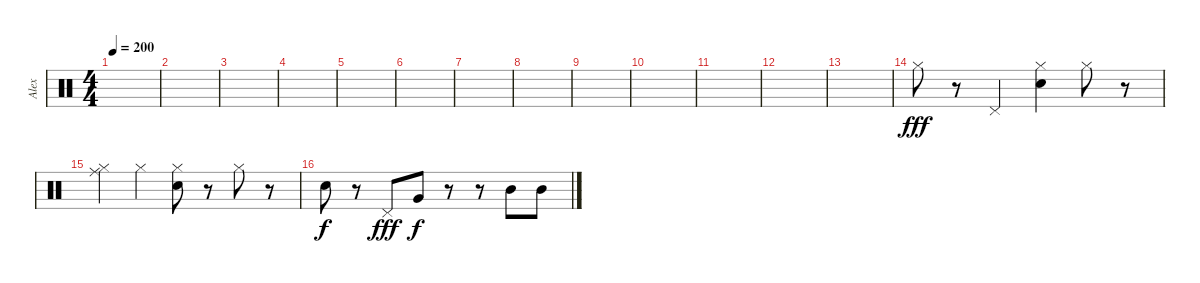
\track ("Alex" "Alex") {instrument percussion}
\staff {score}
\articulation defaults
\ts (4 4)
\tempo 200
\clef neutral
\ks c
|
|
|
|
|
|
|
|
|
|
|
|
|
"Hi-Hat (closed)".8{dy fff} r.8 "Pedal Hi-Hat (hit)".4 ("Electric Snare (hit)" "Hi-Hat (closed)").4 "Hi-Hat (closed)".8 r.8 |
("Hi-Hat (closed)" "Ride (middle)").4 "Hi-Hat (closed)".4 ("Electric Snare (hit)" "Hi-Hat (closed)").8 r.8 "Hi-Hat (closed)".8 r.8 |
"Snare (hit) 2".8{dy f} r.8 "Pedal Hi-Hat (hit)".8{dy fff} "Very Low Tom (hit)".8{dy f} r.8 r.8 "Mid Tom (hit)".8 "Mid Tom (hit)".8
